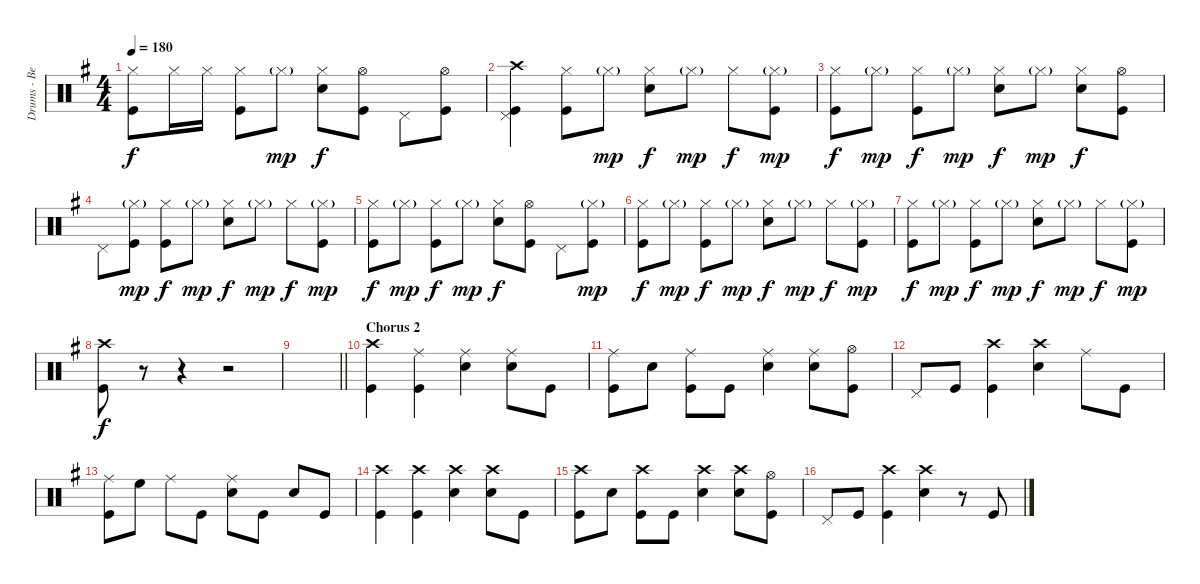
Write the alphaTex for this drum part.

\track ("Drums - Ben Johnston" "Drums - Be") {instrument percussion}
\staff {score}
\articulation defaults
\ts (4 4)
\tempo 180
\clef neutral
\ks eminor
("Hi-Hat (closed)" "Kick (hit)").8{dy f} "Hi-Hat (closed)".16 "Hi-Hat (closed)".16 ("Hi-Hat (closed)" "Kick (hit)").8 "Hi-Hat (closed)"{g}.8{dy mp} ("Hi-Hat (closed)" "Snare (hit) 2").8{dy f} ("Hi-Hat (open)" "Kick (hit)").8 "Pedal Hi-Hat (hit)".8 ("Hi-Hat (open)" "Kick (hit)").8 |
("Crash high (hit)" "Pedal Hi-Hat (hit)" "Kick (hit)").4 ("Hi-Hat (closed)" "Kick (hit)").8 "Hi-Hat (closed)"{g}.8{dy mp} ("Hi-Hat (closed)" "Snare (hit) 2").8{dy f} "Hi-Hat (closed)"{g}.8{dy mp} "Hi-Hat (closed)".8{dy f} ("Hi-Hat (closed)"{g} "Kick (hit)").8{dy mp} |
("Hi-Hat (closed)" "Kick (hit)").8{dy f} "Hi-Hat (closed)"{g}.8{dy mp} ("Hi-Hat (closed)" "Kick (hit)").8{dy f} "Hi-Hat (closed)"{g}.8{dy mp} ("Hi-Hat (closed)" "Snare (hit) 2").8{dy f} "Hi-Hat (closed)"{g}.8{dy mp} ("Hi-Hat (closed)" "Snare (hit) 2").8{dy f} ("Hi-Hat (open)" "Kick (hit)").8 |
"Pedal Hi-Hat (hit)".8 ("Hi-Hat (closed)"{g} "Kick (hit)").8{dy mp} ("Hi-Hat (closed)" "Kick (hit)").8{dy f} "Hi-Hat (closed)"{g}.8{dy mp} ("Hi-Hat (closed)" "Snare (hit) 2").8{dy f} "Hi-Hat (closed)"{g}.8{dy mp} "Hi-Hat (closed)".8{dy f} ("Hi-Hat (closed)"{g} "Kick (hit)").8{dy mp} |
("Hi-Hat (closed)" "Kick (hit)").8{dy f} "Hi-Hat (closed)"{g}.8{dy mp} ("Hi-Hat (closed)" "Kick (hit)").8{dy f} "Hi-Hat (closed)"{g}.8{dy mp} ("Hi-Hat (closed)" "Snare (hit) 2").8{dy f} ("Hi-Hat (open)" "Kick (hit)").8 "Pedal Hi-Hat (hit)".8 ("Hi-Hat (closed)"{g} "Kick (hit)").8{dy mp} |
("Hi-Hat (closed)" "Kick (hit)").8{dy f} "Hi-Hat (closed)"{g}.8{dy mp} ("Hi-Hat (closed)" "Kick (hit)").8{dy f} "Hi-Hat (closed)"{g}.8{dy mp} ("Hi-Hat (closed)" "Snare (hit) 2").8{dy f} "Hi-Hat (closed)"{g}.8{dy mp} "Hi-Hat (closed)".8{dy f} ("Hi-Hat (closed)"{g} "Kick (hit)").8{dy mp} |
("Hi-Hat (closed)" "Kick (hit)").8{dy f} "Hi-Hat (closed)"{g}.8{dy mp} ("Hi-Hat (closed)" "Kick (hit)").8{dy f} "Hi-Hat (closed)"{g}.8{dy mp} ("Hi-Hat (closed)" "Snare (hit) 2").8{dy f} "Hi-Hat (closed)"{g}.8{dy mp} "Hi-Hat (closed)".8{dy f} ("Hi-Hat (closed)"{g} "Kick (hit)").8{dy mp} |
("Crash high (hit)" "Kick (hit)").8{dy f} r.8 r.4 r.2 |
\barLineRight lightlight
|
\section ("" "Chorus 2")
("Crash high (hit)" "Kick (hit)").4 ("Ride (middle)" "Kick (hit)").4 ("Ride (middle)" "Snare (hit) 2").4 ("Ride (middle)" "Snare (hit) 2").8 "Kick (hit)".8 |
("Ride (middle)" "Kick (hit)").8 "Snare (hit) 2".8 ("Ride (middle)" "Kick (hit)").8 "Kick (hit)".8 ("Ride (middle)" "Snare (hit) 2").4 ("Ride (middle)" "Snare (hit) 2").8 ("Hi-Hat (open)" "Kick (hit)").8 |
"Pedal Hi-Hat (hit)".8 "Kick (hit)".8 ("Crash high (hit)" "Kick (hit)").4 ("Crash high (hit)" "Snare (hit) 2").4 "Ride (middle)".8 "Kick (hit)".8 |
("Ride (middle)" "Kick (hit)").8 "High Floor Tom (hit)".8 "Ride (middle)".8 "Kick (hit)".8 ("Ride (middle)" "Snare (hit) 2").8 "Kick (hit)".8 "Snare (hit) 2".8 "Kick (hit)".8 |
("Crash high (hit)" "Kick (hit)").4 ("Crash high (hit)" "Kick (hit)").4 ("Crash high (hit)" "Snare (hit) 2").4 ("Crash high (hit)" "Snare (hit) 2").8 "Kick (hit)".8 |
("Crash high (hit)" "Kick (hit)").8 "Snare (hit) 2".8 ("Crash high (hit)" "Kick (hit)").8 "Kick (hit)".8 ("Crash high (hit)" "Snare (hit) 2").4 ("Crash high (hit)" "Snare (hit) 2").8 ("Hi-Hat (open)" "Kick (hit)").8 |
"Pedal Hi-Hat (hit)".8 "Kick (hit)".8 ("Crash high (hit)" "Kick (hit)").4 ("Crash high (hit)" "Snare (hit) 2").4 r.8 "Kick (hit)".8
